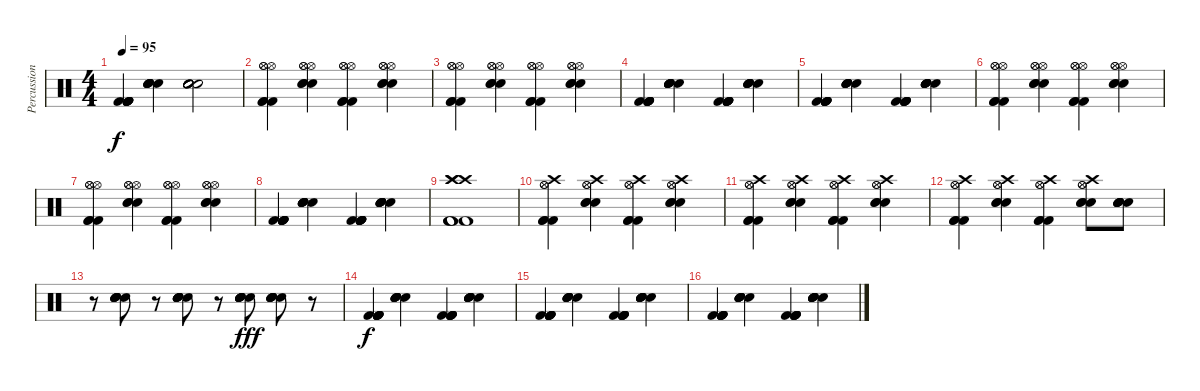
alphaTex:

\track ("Percussion" "Percussion") {instrument percussion}
\staff {score}
\articulation defaults
\ts (4 4)
\tempo 95
\clef neutral
\ks c
("Kick (hit) 2" "Kick (hit) 2" "Kick (hit) 2" "Kick (hit) 2" "Kick (hit) 2" "Kick (hit) 2").4{dy f} ("Electric Snare (hit)" "Electric Snare (hit)" "Electric Snare (hit)" "Electric Snare (hit)" "Electric Snare (hit)" "Electric Snare (hit)").4 ("Electric Snare (hit)" "Electric Snare (hit)" "Electric Snare (hit)" "Electric Snare (hit)" "Electric Snare (hit)" "Electric Snare (hit)").2 |
("Hi-Hat (open)" "Kick (hit) 2" "Hi-Hat (open)" "Kick (hit) 2" "Hi-Hat (open)" "Kick (hit) 2").4 ("Hi-Hat (open)" "Electric Snare (hit)" "Hi-Hat (open)" "Electric Snare (hit)" "Hi-Hat (open)" "Electric Snare (hit)").4 ("Hi-Hat (open)" "Kick (hit) 2" "Hi-Hat (open)" "Kick (hit) 2" "Hi-Hat (open)" "Kick (hit) 2").4 ("Hi-Hat (open)" "Electric Snare (hit)" "Hi-Hat (open)" "Electric Snare (hit)" "Hi-Hat (open)" "Electric Snare (hit)").4 |
("Hi-Hat (open)" "Kick (hit) 2" "Hi-Hat (open)" "Kick (hit) 2" "Hi-Hat (open)" "Kick (hit) 2").4 ("Hi-Hat (open)" "Electric Snare (hit)" "Hi-Hat (open)" "Electric Snare (hit)" "Hi-Hat (open)" "Electric Snare (hit)").4 ("Hi-Hat (open)" "Kick (hit) 2" "Hi-Hat (open)" "Kick (hit) 2" "Hi-Hat (open)" "Kick (hit) 2").4 ("Hi-Hat (open)" "Electric Snare (hit)" "Hi-Hat (open)" "Electric Snare (hit)" "Hi-Hat (open)" "Electric Snare (hit)").4 |
("Kick (hit) 2" "Kick (hit) 2" "Kick (hit) 2" "Kick (hit) 2" "Kick (hit) 2" "Kick (hit) 2").4 ("Electric Snare (hit)" "Electric Snare (hit)" "Electric Snare (hit)" "Electric Snare (hit)" "Electric Snare (hit)" "Electric Snare (hit)").4 ("Kick (hit) 2" "Kick (hit) 2" "Kick (hit) 2" "Kick (hit) 2" "Kick (hit) 2" "Kick (hit) 2").4 ("Electric Snare (hit)" "Electric Snare (hit)" "Electric Snare (hit)" "Electric Snare (hit)" "Electric Snare (hit)" "Electric Snare (hit)").4 |
("Kick (hit) 2" "Kick (hit) 2" "Kick (hit) 2" "Kick (hit) 2" "Kick (hit) 2" "Kick (hit) 2").4 ("Electric Snare (hit)" "Electric Snare (hit)" "Electric Snare (hit)" "Electric Snare (hit)" "Electric Snare (hit)" "Electric Snare (hit)").4 ("Kick (hit) 2" "Kick (hit) 2" "Kick (hit) 2" "Kick (hit) 2" "Kick (hit) 2" "Kick (hit) 2").4 ("Electric Snare (hit)" "Electric Snare (hit)" "Electric Snare (hit)" "Electric Snare (hit)" "Electric Snare (hit)" "Electric Snare (hit)").4 |
("Hi-Hat (open)" "Kick (hit) 2" "Hi-Hat (open)" "Kick (hit) 2" "Hi-Hat (open)" "Kick (hit) 2").4 ("Hi-Hat (open)" "Electric Snare (hit)" "Hi-Hat (open)" "Electric Snare (hit)" "Hi-Hat (open)" "Electric Snare (hit)").4 ("Hi-Hat (open)" "Kick (hit) 2" "Hi-Hat (open)" "Kick (hit) 2" "Hi-Hat (open)" "Kick (hit) 2").4 ("Hi-Hat (open)" "Electric Snare (hit)" "Hi-Hat (open)" "Electric Snare (hit)" "Hi-Hat (open)" "Electric Snare (hit)").4 |
("Hi-Hat (open)" "Kick (hit) 2" "Hi-Hat (open)" "Kick (hit) 2" "Hi-Hat (open)" "Kick (hit) 2").4 ("Hi-Hat (open)" "Electric Snare (hit)" "Hi-Hat (open)" "Electric Snare (hit)" "Hi-Hat (open)" "Electric Snare (hit)").4 ("Hi-Hat (open)" "Kick (hit) 2" "Hi-Hat (open)" "Kick (hit) 2" "Hi-Hat (open)" "Kick (hit) 2").4 ("Hi-Hat (open)" "Electric Snare (hit)" "Hi-Hat (open)" "Electric Snare (hit)" "Hi-Hat (open)" "Electric Snare (hit)").4 |
("Kick (hit) 2" "Kick (hit) 2" "Kick (hit) 2" "Kick (hit) 2" "Kick (hit) 2" "Kick (hit) 2").4 ("Electric Snare (hit)" "Electric Snare (hit)" "Electric Snare (hit)" "Electric Snare (hit)" "Electric Snare (hit)" "Electric Snare (hit)").4 ("Kick (hit) 2" "Kick (hit) 2" "Kick (hit) 2" "Kick (hit) 2" "Kick (hit) 2" "Kick (hit) 2").4 ("Electric Snare (hit)" "Electric Snare (hit)" "Electric Snare (hit)" "Electric Snare (hit)" "Electric Snare (hit)" "Electric Snare (hit)").4 |
("Kick (hit) 2" "Crash high (hit)" "Kick (hit) 2" "Crash high (hit)" "Kick (hit) 2" "Crash high (hit)").1 |
("Crash high (hit)" "Kick (hit) 2" "Hi-Hat (open)" "Kick (hit) 2" "Hi-Hat (open)" "Kick (hit) 2").4 ("Crash high (hit)" "Electric Snare (hit)" "Hi-Hat (open)" "Electric Snare (hit)" "Hi-Hat (open)" "Electric Snare (hit)").4 ("Crash high (hit)" "Kick (hit) 2" "Hi-Hat (open)" "Kick (hit) 2" "Hi-Hat (open)" "Kick (hit) 2").4 ("Crash high (hit)" "Electric Snare (hit)" "Hi-Hat (open)" "Electric Snare (hit)" "Hi-Hat (open)" "Electric Snare (hit)").4 |
("Crash high (hit)" "Kick (hit) 2" "Hi-Hat (open)" "Kick (hit) 2" "Hi-Hat (open)" "Kick (hit) 2").4 ("Crash high (hit)" "Electric Snare (hit)" "Hi-Hat (open)" "Electric Snare (hit)" "Hi-Hat (open)" "Electric Snare (hit)").4 ("Crash high (hit)" "Kick (hit) 2" "Hi-Hat (open)" "Kick (hit) 2" "Hi-Hat (open)" "Kick (hit) 2").4 ("Crash high (hit)" "Electric Snare (hit)" "Hi-Hat (open)" "Electric Snare (hit)" "Hi-Hat (open)" "Electric Snare (hit)").4 |
("Crash high (hit)" "Kick (hit) 2" "Hi-Hat (open)" "Kick (hit) 2" "Hi-Hat (open)" "Kick (hit) 2").4 ("Crash high (hit)" "Electric Snare (hit)" "Hi-Hat (open)" "Electric Snare (hit)" "Hi-Hat (open)" "Electric Snare (hit)").4 ("Crash high (hit)" "Kick (hit) 2" "Hi-Hat (open)" "Kick (hit) 2" "Hi-Hat (open)" "Kick (hit) 2").4 ("Crash high (hit)" "Electric Snare (hit)" "Hi-Hat (open)" "Electric Snare (hit)" "Hi-Hat (open)" "Electric Snare (hit)").8 ("Electric Snare (hit)" "Electric Snare (hit)" "Electric Snare (hit)" "Electric Snare (hit)" "Electric Snare (hit)" "Electric Snare (hit)").8 |
r.8 ("Electric Snare (hit)" "Electric Snare (hit)" "Electric Snare (hit)" "Electric Snare (hit)" "Electric Snare (hit)" "Electric Snare (hit)").8 r.8 ("Electric Snare (hit)" "Electric Snare (hit)" "Electric Snare (hit)" "Electric Snare (hit)" "Electric Snare (hit)" "Electric Snare (hit)").8 r.8 ("Electric Snare (hit)" "Electric Snare (hit)" "Electric Snare (hit)" "Electric Snare (hit)" "Electric Snare (hit)" "Electric Snare (hit)").8{dy fff} ("Electric Snare (hit)" "Electric Snare (hit)" "Electric Snare (hit)" "Electric Snare (hit)" "Electric Snare (hit)" "Electric Snare (hit)").8 r.8 |
("Kick (hit) 2" "Kick (hit) 2" "Kick (hit) 2" "Kick (hit) 2" "Kick (hit) 2" "Kick (hit) 2").4{dy f} ("Electric Snare (hit)" "Electric Snare (hit)" "Electric Snare (hit)" "Electric Snare (hit)" "Electric Snare (hit)" "Electric Snare (hit)").4 ("Kick (hit) 2" "Kick (hit) 2" "Kick (hit) 2" "Kick (hit) 2" "Kick (hit) 2" "Kick (hit) 2").4 ("Electric Snare (hit)" "Electric Snare (hit)" "Electric Snare (hit)" "Electric Snare (hit)" "Electric Snare (hit)" "Electric Snare (hit)").4 |
("Kick (hit) 2" "Kick (hit) 2" "Kick (hit) 2" "Kick (hit) 2" "Kick (hit) 2" "Kick (hit) 2").4 ("Electric Snare (hit)" "Electric Snare (hit)" "Electric Snare (hit)" "Electric Snare (hit)" "Electric Snare (hit)" "Electric Snare (hit)").4 ("Kick (hit) 2" "Kick (hit) 2" "Kick (hit) 2" "Kick (hit) 2" "Kick (hit) 2" "Kick (hit) 2").4 ("Electric Snare (hit)" "Electric Snare (hit)" "Electric Snare (hit)" "Electric Snare (hit)" "Electric Snare (hit)" "Electric Snare (hit)").4 |
("Kick (hit) 2" "Kick (hit) 2" "Kick (hit) 2" "Kick (hit) 2" "Kick (hit) 2" "Kick (hit) 2").4 ("Electric Snare (hit)" "Electric Snare (hit)" "Electric Snare (hit)" "Electric Snare (hit)" "Electric Snare (hit)" "Electric Snare (hit)").4 ("Kick (hit) 2" "Kick (hit) 2" "Kick (hit) 2" "Kick (hit) 2" "Kick (hit) 2" "Kick (hit) 2").4 ("Electric Snare (hit)" "Electric Snare (hit)" "Electric Snare (hit)" "Electric Snare (hit)" "Electric Snare (hit)" "Electric Snare (hit)").4
